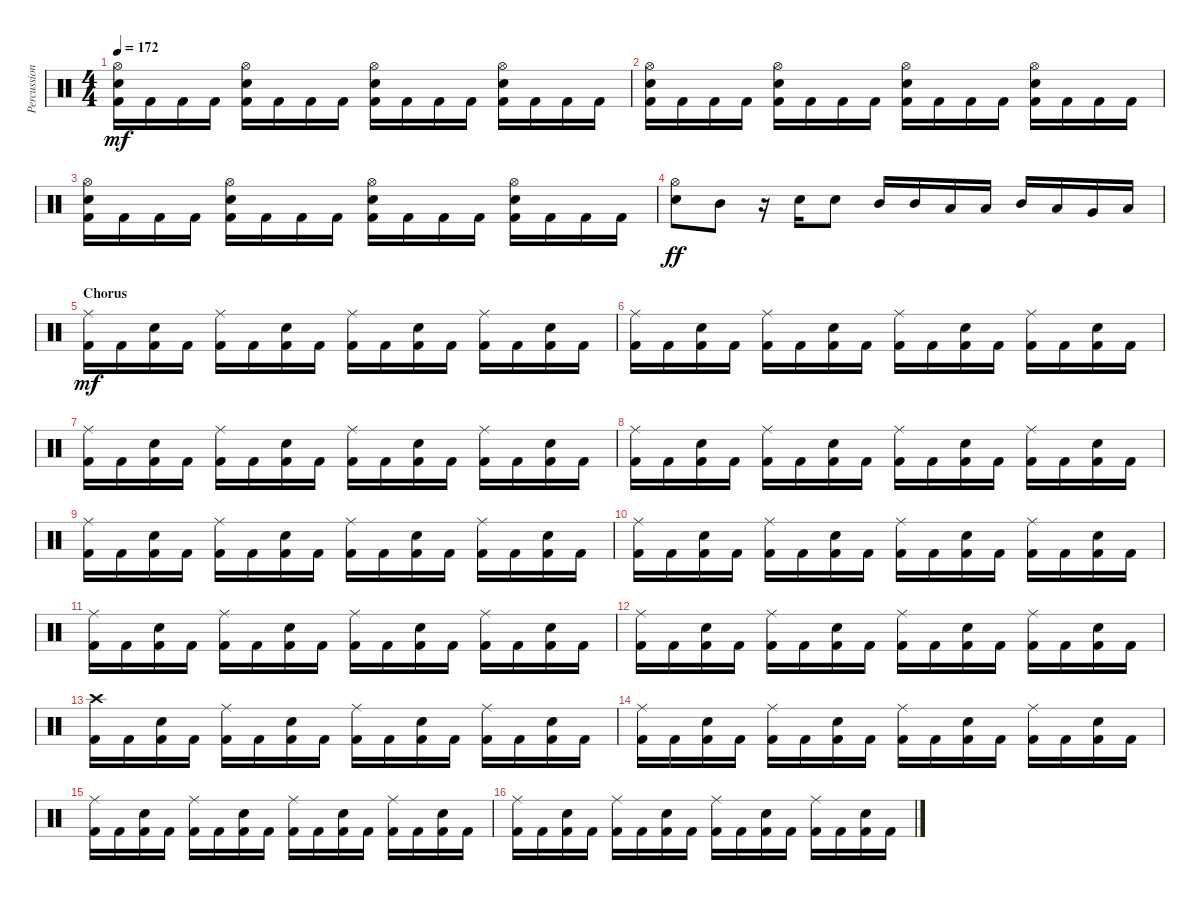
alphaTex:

\track ("Percussion" "Percussion") {instrument percussion}
\staff {score}
\articulation defaults
\ts (4 4)
\tempo 172
\clef neutral
\ks c
("Hi-Hat (open)" "Electric Snare (hit)" "Kick (hit) 2").16{dy mf} "Kick (hit) 2".16 "Kick (hit) 2".16 "Kick (hit) 2".16 ("Hi-Hat (open)" "Electric Snare (hit)" "Kick (hit) 2").16 "Kick (hit) 2".16 "Kick (hit) 2".16 "Kick (hit) 2".16 ("Hi-Hat (open)" "Electric Snare (hit)" "Kick (hit) 2").16 "Kick (hit) 2".16 "Kick (hit) 2".16 "Kick (hit) 2".16 ("Hi-Hat (open)" "Electric Snare (hit)" "Kick (hit) 2").16 "Kick (hit) 2".16 "Kick (hit) 2".16 "Kick (hit) 2".16 |
("Hi-Hat (open)" "Electric Snare (hit)" "Kick (hit) 2").16 "Kick (hit) 2".16 "Kick (hit) 2".16 "Kick (hit) 2".16 ("Hi-Hat (open)" "Electric Snare (hit)" "Kick (hit) 2").16 "Kick (hit) 2".16 "Kick (hit) 2".16 "Kick (hit) 2".16 ("Hi-Hat (open)" "Electric Snare (hit)" "Kick (hit) 2").16 "Kick (hit) 2".16 "Kick (hit) 2".16 "Kick (hit) 2".16 ("Hi-Hat (open)" "Electric Snare (hit)" "Kick (hit) 2").16 "Kick (hit) 2".16 "Kick (hit) 2".16 "Kick (hit) 2".16 |
("Hi-Hat (open)" "Electric Snare (hit)" "Kick (hit) 2").16 "Kick (hit) 2".16 "Kick (hit) 2".16 "Kick (hit) 2".16 ("Hi-Hat (open)" "Electric Snare (hit)" "Kick (hit) 2").16 "Kick (hit) 2".16 "Kick (hit) 2".16 "Kick (hit) 2".16 ("Hi-Hat (open)" "Electric Snare (hit)" "Kick (hit) 2").16 "Kick (hit) 2".16 "Kick (hit) 2".16 "Kick (hit) 2".16 ("Hi-Hat (open)" "Electric Snare (hit)" "Kick (hit) 2").16 "Kick (hit) 2".16 "Kick (hit) 2".16 "Kick (hit) 2".16 |
("Hi-Hat (open)" "Electric Snare (hit)").8{dy ff} "Mid Tom (hit)".8 r.16 "Electric Snare (hit)".16 "Electric Snare (hit)".8 "Mid Tom (hit)".16 "Mid Tom (hit)".16 "Low Tom (hit)".16 "Low Tom (hit)".16 "Mid Tom (hit)".16 "Low Tom (hit)".16 "Very Low Tom (hit)".16 "Low Floor Tom (hit)".16 |
\section ("" "Chorus ")
("Ride (middle)" "Kick (hit) 2").16{dy mf} "Kick (hit) 2".16 ("Electric Snare (hit)" "Kick (hit) 2").16 "Kick (hit) 2".16 ("Ride (middle)" "Kick (hit) 2").16 "Kick (hit) 2".16 ("Electric Snare (hit)" "Kick (hit) 2").16 "Kick (hit) 2".16 ("Ride (middle)" "Kick (hit) 2").16 "Kick (hit) 2".16 ("Electric Snare (hit)" "Kick (hit) 2").16 "Kick (hit) 2".16 ("Ride (middle)" "Kick (hit) 2").16 "Kick (hit) 2".16 ("Electric Snare (hit)" "Kick (hit) 2").16 "Kick (hit) 2".16 |
("Ride (middle)" "Kick (hit) 2").16 "Kick (hit) 2".16 ("Electric Snare (hit)" "Kick (hit) 2").16 "Kick (hit) 2".16 ("Ride (middle)" "Kick (hit) 2").16 "Kick (hit) 2".16 ("Electric Snare (hit)" "Kick (hit) 2").16 "Kick (hit) 2".16 ("Ride (middle)" "Kick (hit) 2").16 "Kick (hit) 2".16 ("Electric Snare (hit)" "Kick (hit) 2").16 "Kick (hit) 2".16 ("Ride (middle)" "Kick (hit) 2").16 "Kick (hit) 2".16 ("Electric Snare (hit)" "Kick (hit) 2").16 "Kick (hit) 2".16 |
("Ride (middle)" "Kick (hit) 2").16 "Kick (hit) 2".16 ("Electric Snare (hit)" "Kick (hit) 2").16 "Kick (hit) 2".16 ("Ride (middle)" "Kick (hit) 2").16 "Kick (hit) 2".16 ("Electric Snare (hit)" "Kick (hit) 2").16 "Kick (hit) 2".16 ("Ride (middle)" "Kick (hit) 2").16 "Kick (hit) 2".16 ("Electric Snare (hit)" "Kick (hit) 2").16 "Kick (hit) 2".16 ("Ride (middle)" "Kick (hit) 2").16 "Kick (hit) 2".16 ("Electric Snare (hit)" "Kick (hit) 2").16 "Kick (hit) 2".16 |
("Ride (middle)" "Kick (hit) 2").16 "Kick (hit) 2".16 ("Electric Snare (hit)" "Kick (hit) 2").16 "Kick (hit) 2".16 ("Ride (middle)" "Kick (hit) 2").16 "Kick (hit) 2".16 ("Electric Snare (hit)" "Kick (hit) 2").16 "Kick (hit) 2".16 ("Ride (middle)" "Kick (hit) 2").16 "Kick (hit) 2".16 ("Electric Snare (hit)" "Kick (hit) 2").16 "Kick (hit) 2".16 ("Ride (middle)" "Kick (hit) 2").16 "Kick (hit) 2".16 ("Electric Snare (hit)" "Kick (hit) 2").16 "Kick (hit) 2".16 |
("Ride (middle)" "Kick (hit) 2").16 "Kick (hit) 2".16 ("Electric Snare (hit)" "Kick (hit) 2").16 "Kick (hit) 2".16 ("Ride (middle)" "Kick (hit) 2").16 "Kick (hit) 2".16 ("Electric Snare (hit)" "Kick (hit) 2").16 "Kick (hit) 2".16 ("Ride (middle)" "Kick (hit) 2").16 "Kick (hit) 2".16 ("Electric Snare (hit)" "Kick (hit) 2").16 "Kick (hit) 2".16 ("Ride (middle)" "Kick (hit) 2").16 "Kick (hit) 2".16 ("Electric Snare (hit)" "Kick (hit) 2").16 "Kick (hit) 2".16 |
("Ride (middle)" "Kick (hit) 2").16 "Kick (hit) 2".16 ("Electric Snare (hit)" "Kick (hit) 2").16 "Kick (hit) 2".16 ("Ride (middle)" "Kick (hit) 2").16 "Kick (hit) 2".16 ("Electric Snare (hit)" "Kick (hit) 2").16 "Kick (hit) 2".16 ("Ride (middle)" "Kick (hit) 2").16 "Kick (hit) 2".16 ("Electric Snare (hit)" "Kick (hit) 2").16 "Kick (hit) 2".16 ("Ride (middle)" "Kick (hit) 2").16 "Kick (hit) 2".16 ("Electric Snare (hit)" "Kick (hit) 2").16 "Kick (hit) 2".16 |
("Ride (middle)" "Kick (hit) 2").16 "Kick (hit) 2".16 ("Electric Snare (hit)" "Kick (hit) 2").16 "Kick (hit) 2".16 ("Ride (middle)" "Kick (hit) 2").16 "Kick (hit) 2".16 ("Electric Snare (hit)" "Kick (hit) 2").16 "Kick (hit) 2".16 ("Ride (middle)" "Kick (hit) 2").16 "Kick (hit) 2".16 ("Electric Snare (hit)" "Kick (hit) 2").16 "Kick (hit) 2".16 ("Ride (middle)" "Kick (hit) 2").16 "Kick (hit) 2".16 ("Electric Snare (hit)" "Kick (hit) 2").16 "Kick (hit) 2".16 |
("Ride (middle)" "Kick (hit) 2").16 "Kick (hit) 2".16 ("Electric Snare (hit)" "Kick (hit) 2").16 "Kick (hit) 2".16 ("Ride (middle)" "Kick (hit) 2").16 "Kick (hit) 2".16 ("Electric Snare (hit)" "Kick (hit) 2").16 "Kick (hit) 2".16 ("Ride (middle)" "Kick (hit) 2").16 "Kick (hit) 2".16 ("Electric Snare (hit)" "Kick (hit) 2").16 "Kick (hit) 2".16 ("Ride (middle)" "Kick (hit) 2").16 "Kick (hit) 2".16 ("Electric Snare (hit)" "Kick (hit) 2").16 "Kick (hit) 2".16 |
("Crash high (hit)" "Kick (hit) 2").16 "Kick (hit) 2".16 ("Electric Snare (hit)" "Kick (hit) 2").16 "Kick (hit) 2".16 ("Ride (middle)" "Kick (hit) 2").16 "Kick (hit) 2".16 ("Electric Snare (hit)" "Kick (hit) 2").16 "Kick (hit) 2".16 ("Ride (middle)" "Kick (hit) 2").16 "Kick (hit) 2".16 ("Electric Snare (hit)" "Kick (hit) 2").16 "Kick (hit) 2".16 ("Ride (middle)" "Kick (hit) 2").16 "Kick (hit) 2".16 ("Electric Snare (hit)" "Kick (hit) 2").16 "Kick (hit) 2".16 |
("Ride (middle)" "Kick (hit) 2").16 "Kick (hit) 2".16 ("Electric Snare (hit)" "Kick (hit) 2").16 "Kick (hit) 2".16 ("Ride (middle)" "Kick (hit) 2").16 "Kick (hit) 2".16 ("Electric Snare (hit)" "Kick (hit) 2").16 "Kick (hit) 2".16 ("Ride (middle)" "Kick (hit) 2").16 "Kick (hit) 2".16 ("Electric Snare (hit)" "Kick (hit) 2").16 "Kick (hit) 2".16 ("Ride (middle)" "Kick (hit) 2").16 "Kick (hit) 2".16 ("Electric Snare (hit)" "Kick (hit) 2").16 "Kick (hit) 2".16 |
("Ride (middle)" "Kick (hit) 2").16 "Kick (hit) 2".16 ("Electric Snare (hit)" "Kick (hit) 2").16 "Kick (hit) 2".16 ("Ride (middle)" "Kick (hit) 2").16 "Kick (hit) 2".16 ("Electric Snare (hit)" "Kick (hit) 2").16 "Kick (hit) 2".16 ("Ride (middle)" "Kick (hit) 2").16 "Kick (hit) 2".16 ("Electric Snare (hit)" "Kick (hit) 2").16 "Kick (hit) 2".16 ("Ride (middle)" "Kick (hit) 2").16 "Kick (hit) 2".16 ("Electric Snare (hit)" "Kick (hit) 2").16 "Kick (hit) 2".16 |
("Ride (middle)" "Kick (hit) 2").16 "Kick (hit) 2".16 ("Electric Snare (hit)" "Kick (hit) 2").16 "Kick (hit) 2".16 ("Ride (middle)" "Kick (hit) 2").16 "Kick (hit) 2".16 ("Electric Snare (hit)" "Kick (hit) 2").16 "Kick (hit) 2".16 ("Ride (middle)" "Kick (hit) 2").16 "Kick (hit) 2".16 ("Electric Snare (hit)" "Kick (hit) 2").16 "Kick (hit) 2".16 ("Ride (middle)" "Kick (hit) 2").16 "Kick (hit) 2".16 ("Electric Snare (hit)" "Kick (hit) 2").16 "Kick (hit) 2".16
